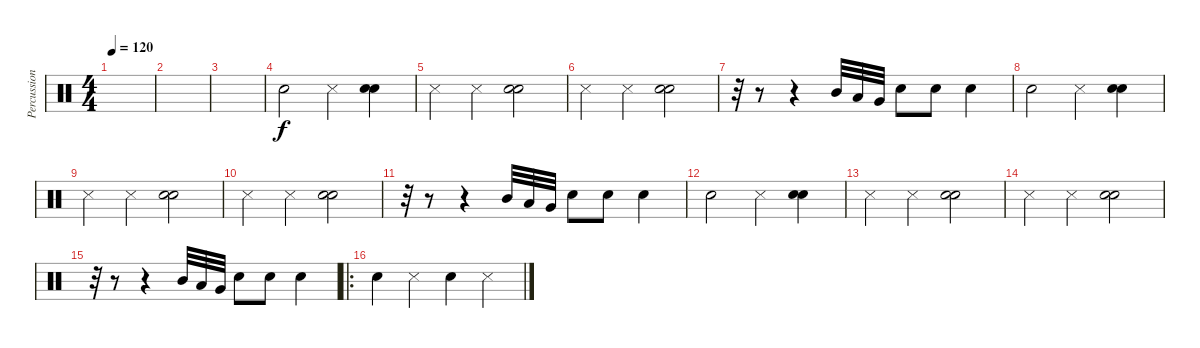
\track ("Percussion" "Percussion") {instrument percussion}
\staff {score}
\articulation defaults
\ts (4 4)
\tempo 120
\clef neutral
\ks c
|
|
|
"Snare (hit) 2".2 "Snare (side stick) 3".4 ("Snare (hit) 2" "Snare (hit) 2").4 |
"Snare (side stick) 3".4 "Snare (side stick) 3".4 ("Snare (hit) 2" "Snare (hit) 2").2 |
"Snare (side stick) 3".4 "Snare (side stick) 3".4 ("Snare (hit) 2" "Snare (hit) 2").2 |
r.32 r.8 r.4 "Mid Tom (hit)".32 "Low Tom (hit)".32 "Very Low Tom (hit)".32 "Snare (hit) 2".8 "Snare (hit) 2".8 "Snare (hit) 2".4 |
"Snare (hit) 2".2 "Snare (side stick) 3".4 ("Snare (hit) 2" "Snare (hit) 2").4 |
"Snare (side stick) 3".4 "Snare (side stick) 3".4 ("Snare (hit) 2" "Snare (hit) 2").2 |
"Snare (side stick) 3".4 "Snare (side stick) 3".4 ("Snare (hit) 2" "Snare (hit) 2").2 |
r.32 r.8 r.4 "Mid Tom (hit)".32 "Low Tom (hit)".32 "Very Low Tom (hit)".32 "Snare (hit) 2".8 "Snare (hit) 2".8 "Snare (hit) 2".4 |
"Snare (hit) 2".2 "Snare (side stick) 3".4 ("Snare (hit) 2" "Snare (hit) 2").4 |
"Snare (side stick) 3".4 "Snare (side stick) 3".4 ("Snare (hit) 2" "Snare (hit) 2").2 |
"Snare (side stick) 3".4 "Snare (side stick) 3".4 ("Snare (hit) 2" "Snare (hit) 2").2 |
r.32 r.8 r.4 "Mid Tom (hit)".32 "Low Tom (hit)".32 "Very Low Tom (hit)".32 "Snare (hit) 2".8 "Snare (hit) 2".8 "Snare (hit) 2".4 |
\ro "Snare (hit) 2".4 "Snare (side stick) 3".4 "Snare (hit) 2".4 "Snare (side stick) 3".4
